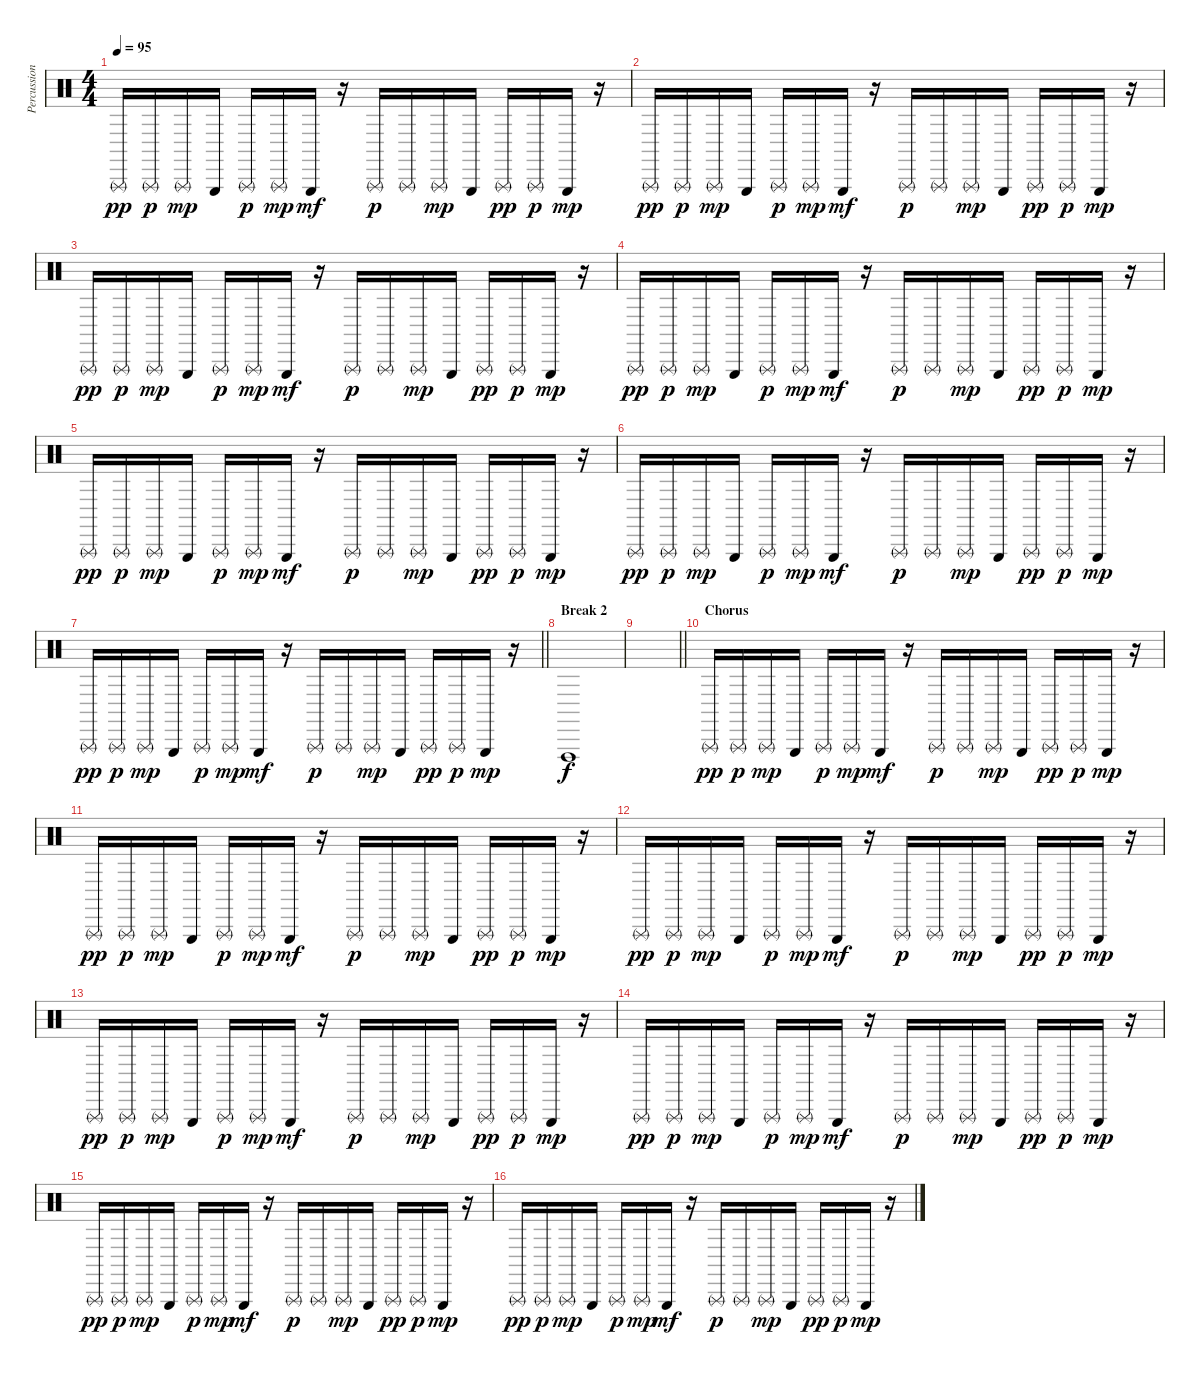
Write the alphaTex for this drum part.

\track ("Percussions" "Percussion") {instrument percussion}
\staff {score}
\articulation defaults
\ts (4 4)
\tempo 95
\clef neutral
\ks c "Triangle (rnute)".16{dy pp} "Triangle (rnute)".16{dy p} "Triangle (rnute)".16{dy mp} "Triangle (hit)".16 "Triangle (rnute)".16{dy p} "Triangle (rnute)".16{dy mp} "Triangle (hit)".16{dy mf}
r.16 "Triangle (rnute)".16{dy p} "Triangle (rnute)".16 "Triangle (rnute)".16{dy mp} "Triangle (hit)".16 "Triangle (rnute)".16{dy pp} "Triangle (rnute)".16{dy p} "Triangle (hit)".16{dy mp} r.16 |
"Triangle (rnute)".16{dy pp} "Triangle (rnute)".16{dy p} "Triangle (rnute)".16{dy mp} "Triangle (hit)".16 "Triangle (rnute)".16{dy p} "Triangle (rnute)".16{dy mp} "Triangle (hit)".16{dy mf} r.16 "Triangle (rnute)".16{dy p} "Triangle (rnute)".16 "Triangle (rnute)".16{dy mp} "Triangle (hit)".16 "Triangle (rnute)".16{dy pp} "Triangle (rnute)".16{dy p} "Triangle (hit)".16{dy mp} r.16 |
"Triangle (rnute)".16{dy pp} "Triangle (rnute)".16{dy p} "Triangle (rnute)".16{dy mp} "Triangle (hit)".16 "Triangle (rnute)".16{dy p} "Triangle (rnute)".16{dy mp} "Triangle (hit)".16{dy mf} r.16 "Triangle (rnute)".16{dy p} "Triangle (rnute)".16 "Triangle (rnute)".16{dy mp} "Triangle (hit)".16 "Triangle (rnute)".16{dy pp} "Triangle (rnute)".16{dy p} "Triangle (hit)".16{dy mp} r.16 |
"Triangle (rnute)".16{dy pp} "Triangle (rnute)".16{dy p} "Triangle (rnute)".16{dy mp} "Triangle (hit)".16 "Triangle (rnute)".16{dy p} "Triangle (rnute)".16{dy mp} "Triangle (hit)".16{dy mf} r.16 "Triangle (rnute)".16{dy p} "Triangle (rnute)".16 "Triangle (rnute)".16{dy mp} "Triangle (hit)".16 "Triangle (rnute)".16{dy pp} "Triangle (rnute)".16{dy p} "Triangle (hit)".16{dy mp} r.16 |
"Triangle (rnute)".16{dy pp} "Triangle (rnute)".16{dy p} "Triangle (rnute)".16{dy mp} "Triangle (hit)".16 "Triangle (rnute)".16{dy p} "Triangle (rnute)".16{dy mp} "Triangle (hit)".16{dy mf} r.16 "Triangle (rnute)".16{dy p} "Triangle (rnute)".16 "Triangle (rnute)".16{dy mp} "Triangle (hit)".16 "Triangle (rnute)".16{dy pp} "Triangle (rnute)".16{dy p} "Triangle (hit)".16{dy mp} r.16 |
"Triangle (rnute)".16{dy pp} "Triangle (rnute)".16{dy p} "Triangle (rnute)".16{dy mp} "Triangle (hit)".16 "Triangle (rnute)".16{dy p} "Triangle (rnute)".16{dy mp} "Triangle (hit)".16{dy mf} r.16 "Triangle (rnute)".16{dy p} "Triangle (rnute)".16 "Triangle (rnute)".16{dy mp} "Triangle (hit)".16 "Triangle (rnute)".16{dy pp} "Triangle (rnute)".16{dy p} "Triangle (hit)".16{dy mp} r.16 |
\barLineRight lightlight "Triangle (rnute)".16{dy pp} "Triangle (rnute)".16{dy p} "Triangle (rnute)".16{dy mp} "Triangle (hit)".16 "Triangle (rnute)".16{dy p} "Triangle (rnute)".16{dy mp} "Triangle (hit)".16{dy mf}
r.16 "Triangle (rnute)".16{dy p} "Triangle (rnute)".16 "Triangle (rnute)".16{dy mp} "Triangle (hit)".16 "Triangle (rnute)".16{dy pp} "Triangle (rnute)".16{dy p} "Triangle (hit)".16{dy mp} r.16 |
\section ("" "Break 2")
"Vibraslap (hit)".1{dy f} |
\barLineRight lightlight
|
\section ("" "Chorus")
"Triangle (rnute)".16{dy pp} "Triangle (rnute)".16{dy p} "Triangle (rnute)".16{dy mp} "Triangle (hit)".16 "Triangle (rnute)".16{dy p} "Triangle (rnute)".16{dy mp} "Triangle (hit)".16{dy mf} r.16 "Triangle (rnute)".16{dy p} "Triangle (rnute)".16 "Triangle (rnute)".16{dy mp} "Triangle (hit)".16 "Triangle (rnute)".16{dy pp} "Triangle (rnute)".16{dy p} "Triangle (hit)".16{dy mp} r.16 |
"Triangle (rnute)".16{dy pp} "Triangle (rnute)".16{dy p} "Triangle (rnute)".16{dy mp} "Triangle (hit)".16 "Triangle (rnute)".16{dy p} "Triangle (rnute)".16{dy mp} "Triangle (hit)".16{dy mf} r.16 "Triangle (rnute)".16{dy p} "Triangle (rnute)".16 "Triangle (rnute)".16{dy mp} "Triangle (hit)".16 "Triangle (rnute)".16{dy pp} "Triangle (rnute)".16{dy p} "Triangle (hit)".16{dy mp} r.16 |
"Triangle (rnute)".16{dy pp} "Triangle (rnute)".16{dy p} "Triangle (rnute)".16{dy mp} "Triangle (hit)".16 "Triangle (rnute)".16{dy p} "Triangle (rnute)".16{dy mp} "Triangle (hit)".16{dy mf} r.16 "Triangle (rnute)".16{dy p} "Triangle (rnute)".16 "Triangle (rnute)".16{dy mp} "Triangle (hit)".16 "Triangle (rnute)".16{dy pp} "Triangle (rnute)".16{dy p} "Triangle (hit)".16{dy mp} r.16 |
"Triangle (rnute)".16{dy pp} "Triangle (rnute)".16{dy p} "Triangle (rnute)".16{dy mp} "Triangle (hit)".16 "Triangle (rnute)".16{dy p} "Triangle (rnute)".16{dy mp} "Triangle (hit)".16{dy mf} r.16 "Triangle (rnute)".16{dy p} "Triangle (rnute)".16 "Triangle (rnute)".16{dy mp} "Triangle (hit)".16 "Triangle (rnute)".16{dy pp} "Triangle (rnute)".16{dy p} "Triangle (hit)".16{dy mp} r.16 |
"Triangle (rnute)".16{dy pp} "Triangle (rnute)".16{dy p} "Triangle (rnute)".16{dy mp} "Triangle (hit)".16 "Triangle (rnute)".16{dy p} "Triangle (rnute)".16{dy mp} "Triangle (hit)".16{dy mf} r.16 "Triangle (rnute)".16{dy p} "Triangle (rnute)".16 "Triangle (rnute)".16{dy mp} "Triangle (hit)".16 "Triangle (rnute)".16{dy pp} "Triangle (rnute)".16{dy p} "Triangle (hit)".16{dy mp} r.16 |
"Triangle (rnute)".16{dy pp} "Triangle (rnute)".16{dy p} "Triangle (rnute)".16{dy mp} "Triangle (hit)".16 "Triangle (rnute)".16{dy p} "Triangle (rnute)".16{dy mp} "Triangle (hit)".16{dy mf} r.16 "Triangle (rnute)".16{dy p} "Triangle (rnute)".16 "Triangle (rnute)".16{dy mp} "Triangle (hit)".16 "Triangle (rnute)".16{dy pp} "Triangle (rnute)".16{dy p} "Triangle (hit)".16{dy mp} r.16 |
"Triangle (rnute)".16{dy pp} "Triangle (rnute)".16{dy p} "Triangle (rnute)".16{dy mp} "Triangle (hit)".16 "Triangle (rnute)".16{dy p} "Triangle (rnute)".16{dy mp} "Triangle (hit)".16{dy mf} r.16 "Triangle (rnute)".16{dy p} "Triangle (rnute)".16 "Triangle (rnute)".16{dy mp} "Triangle (hit)".16 "Triangle (rnute)".16{dy pp} "Triangle (rnute)".16{dy p} "Triangle (hit)".16{dy mp} r.16
